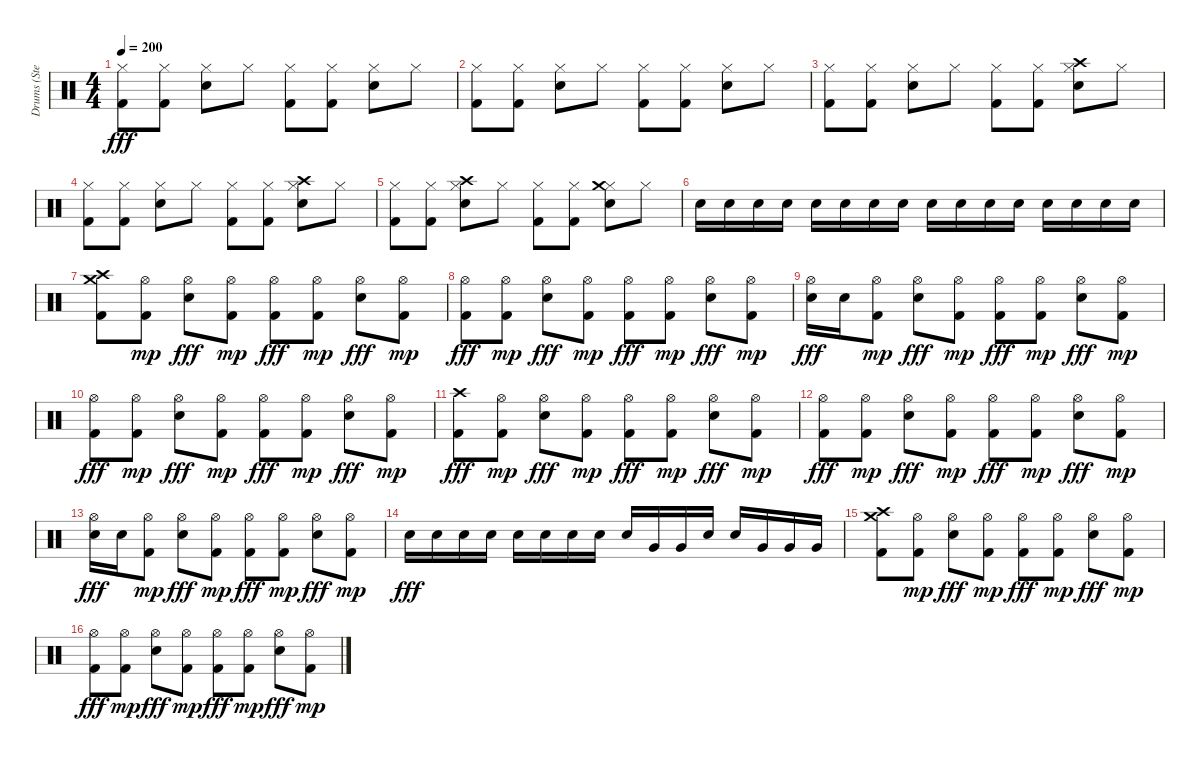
\track ("Drums (Stevo32)" "Drums (Ste") {instrument percussion}
\staff {score}
\articulation defaults
\ts (4 4)
\tempo 200
\clef neutral
\ks c
("Kick (hit) 2" "Hi-Hat (closed)").8{dy fff} ("Kick (hit) 2" "Hi-Hat (closed)").8 ("Electric Snare (hit)" "Hi-Hat (closed)").8 "Hi-Hat (closed)".8 ("Kick (hit) 2" "Hi-Hat (closed)").8 ("Kick (hit) 2" "Hi-Hat (closed)").8 ("Electric Snare (hit)" "Hi-Hat (closed)").8 "Hi-Hat (closed)".8 |
("Kick (hit) 2" "Hi-Hat (closed)").8 ("Kick (hit) 2" "Hi-Hat (closed)").8 ("Electric Snare (hit)" "Hi-Hat (closed)").8 "Hi-Hat (closed)".8 ("Kick (hit) 2" "Hi-Hat (closed)").8 ("Kick (hit) 2" "Hi-Hat (closed)").8 ("Electric Snare (hit)" "Hi-Hat (closed)").8 "Hi-Hat (closed)".8 |
("Kick (hit) 2" "Hi-Hat (closed)").8 ("Kick (hit) 2" "Hi-Hat (closed)").8 ("Electric Snare (hit)" "Hi-Hat (closed)").8 "Hi-Hat (closed)".8 ("Kick (hit) 2" "Hi-Hat (closed)").8 ("Kick (hit) 2" "Hi-Hat (closed)").8 ("Electric Snare (hit)" "Hi-Hat (closed)" "Crash high (hit)").8 "Hi-Hat (closed)".8 |
("Kick (hit) 2" "Hi-Hat (closed)").8 ("Kick (hit) 2" "Hi-Hat (closed)").8 ("Electric Snare (hit)" "Hi-Hat (closed)").8 "Hi-Hat (closed)".8 ("Kick (hit) 2" "Hi-Hat (closed)").8 ("Kick (hit) 2" "Hi-Hat (closed)").8 ("Electric Snare (hit)" "Hi-Hat (closed)" "Crash high (hit)").8 "Hi-Hat (closed)".8 |
("Kick (hit) 2" "Hi-Hat (closed)").8 ("Kick (hit) 2" "Hi-Hat (closed)").8 ("Electric Snare (hit)" "Hi-Hat (closed)" "Crash high (hit)").8 "Hi-Hat (closed)".8 ("Kick (hit) 2" "Hi-Hat (closed)").8 ("Kick (hit) 2" "Hi-Hat (closed)").8 ("Electric Snare (hit)" "Hi-Hat (closed)" "Crash medium (hit)").8 "Hi-Hat (closed)".8 |
"Electric Snare (hit)".16 "Electric Snare (hit)".16 "Electric Snare (hit)".16 "Electric Snare (hit)".16 "Electric Snare (hit)".16 "Electric Snare (hit)".16 "Electric Snare (hit)".16 "Electric Snare (hit)".16 "Electric Snare (hit)".16 "Electric Snare (hit)".16 "Electric Snare (hit)".16 "Electric Snare (hit)".16 "Electric Snare (hit)".16 "Electric Snare (hit)".16 "Electric Snare (hit)".16 "Electric Snare (hit)".16 |
("Kick (hit) 2" "Crash high (hit)" "Crash medium (hit)").8 ("Kick (hit) 2" "Hi-Hat (open)").8{dy mp} ("Electric Snare (hit)" "Hi-Hat (open)").8{dy fff} ("Kick (hit) 2" "Hi-Hat (open)").8{dy mp} ("Kick (hit) 2" "Hi-Hat (open)").8{dy fff} ("Kick (hit) 2" "Hi-Hat (open)").8{dy mp} ("Electric Snare (hit)" "Hi-Hat (open)").8{dy fff} ("Kick (hit) 2" "Hi-Hat (open)").8{dy mp} |
("Kick (hit) 2" "Hi-Hat (open)").8{dy fff} ("Kick (hit) 2" "Hi-Hat (open)").8{dy mp} ("Electric Snare (hit)" "Hi-Hat (open)").8{dy fff} ("Kick (hit) 2" "Hi-Hat (open)").8{dy mp} ("Kick (hit) 2" "Hi-Hat (open)").8{dy fff} ("Kick (hit) 2" "Hi-Hat (open)").8{dy mp} ("Electric Snare (hit)" "Hi-Hat (open)").8{dy fff} ("Kick (hit) 2" "Hi-Hat (open)").8{dy mp} |
("Electric Snare (hit)" "Hi-Hat (open)").16{dy fff} "Electric Snare (hit)".16 ("Kick (hit) 2" "Hi-Hat (open)").8{dy mp} ("Electric Snare (hit)" "Hi-Hat (open)").8{dy fff} ("Kick (hit) 2" "Hi-Hat (open)").8{dy mp} ("Kick (hit) 2" "Hi-Hat (open)").8{dy fff} ("Kick (hit) 2" "Hi-Hat (open)").8{dy mp} ("Electric Snare (hit)" "Hi-Hat (open)").8{dy fff} ("Kick (hit) 2" "Hi-Hat (open)").8{dy mp} |
("Kick (hit) 2" "Hi-Hat (open)").8{dy fff} ("Kick (hit) 2" "Hi-Hat (open)").8{dy mp} ("Electric Snare (hit)" "Hi-Hat (open)").8{dy fff} ("Kick (hit) 2" "Hi-Hat (open)").8{dy mp} ("Kick (hit) 2" "Hi-Hat (open)").8{dy fff} ("Kick (hit) 2" "Hi-Hat (open)").8{dy mp} ("Electric Snare (hit)" "Hi-Hat (open)").8{dy fff} ("Kick (hit) 2" "Hi-Hat (open)").8{dy mp} |
("Kick (hit) 2" "Crash high (hit)").8{dy fff} ("Kick (hit) 2" "Hi-Hat (open)").8{dy mp} ("Electric Snare (hit)" "Hi-Hat (open)").8{dy fff} ("Kick (hit) 2" "Hi-Hat (open)").8{dy mp} ("Kick (hit) 2" "Hi-Hat (open)").8{dy fff} ("Kick (hit) 2" "Hi-Hat (open)").8{dy mp} ("Electric Snare (hit)" "Hi-Hat (open)").8{dy fff} ("Kick (hit) 2" "Hi-Hat (open)").8{dy mp} |
("Kick (hit) 2" "Hi-Hat (open)").8{dy fff} ("Kick (hit) 2" "Hi-Hat (open)").8{dy mp} ("Electric Snare (hit)" "Hi-Hat (open)").8{dy fff} ("Kick (hit) 2" "Hi-Hat (open)").8{dy mp} ("Kick (hit) 2" "Hi-Hat (open)").8{dy fff} ("Kick (hit) 2" "Hi-Hat (open)").8{dy mp} ("Electric Snare (hit)" "Hi-Hat (open)").8{dy fff} ("Kick (hit) 2" "Hi-Hat (open)").8{dy mp} |
("Electric Snare (hit)" "Hi-Hat (open)").16{dy fff} "Electric Snare (hit)".16 ("Kick (hit) 2" "Hi-Hat (open)").8{dy mp} ("Electric Snare (hit)" "Hi-Hat (open)").8{dy fff} ("Kick (hit) 2" "Hi-Hat (open)").8{dy mp} ("Kick (hit) 2" "Hi-Hat (open)").8{dy fff} ("Kick (hit) 2" "Hi-Hat (open)").8{dy mp} ("Electric Snare (hit)" "Hi-Hat (open)").8{dy fff} ("Kick (hit) 2" "Hi-Hat (open)").8{dy mp} |
"Electric Snare (hit)".16{dy fff} "Electric Snare (hit)".16 "Electric Snare (hit)".16 "Electric Snare (hit)".16 "Electric Snare (hit)".16 "Electric Snare (hit)".16 "Electric Snare (hit)".16 "Electric Snare (hit)".16 "Electric Snare (hit)".16 "Very Low Tom (hit)".16 "Very Low Tom (hit)".16 "Electric Snare (hit)".16 "Electric Snare (hit)".16 "Very Low Tom (hit)".16 "Very Low Tom (hit)".16 "Very Low Tom (hit)".16 |
("Kick (hit) 2" "Crash high (hit)" "Crash medium (hit)").8 ("Kick (hit) 2" "Hi-Hat (open)").8{dy mp} ("Electric Snare (hit)" "Hi-Hat (open)").8{dy fff} ("Kick (hit) 2" "Hi-Hat (open)").8{dy mp} ("Kick (hit) 2" "Hi-Hat (open)").8{dy fff} ("Kick (hit) 2" "Hi-Hat (open)").8{dy mp} ("Electric Snare (hit)" "Hi-Hat (open)").8{dy fff} ("Kick (hit) 2" "Hi-Hat (open)").8{dy mp} |
("Kick (hit) 2" "Hi-Hat (open)").8{dy fff} ("Kick (hit) 2" "Hi-Hat (open)").8{dy mp} ("Electric Snare (hit)" "Hi-Hat (open)").8{dy fff} ("Kick (hit) 2" "Hi-Hat (open)").8{dy mp} ("Kick (hit) 2" "Hi-Hat (open)").8{dy fff} ("Kick (hit) 2" "Hi-Hat (open)").8{dy mp} ("Electric Snare (hit)" "Hi-Hat (open)").8{dy fff} ("Kick (hit) 2" "Hi-Hat (open)").8{dy mp}
